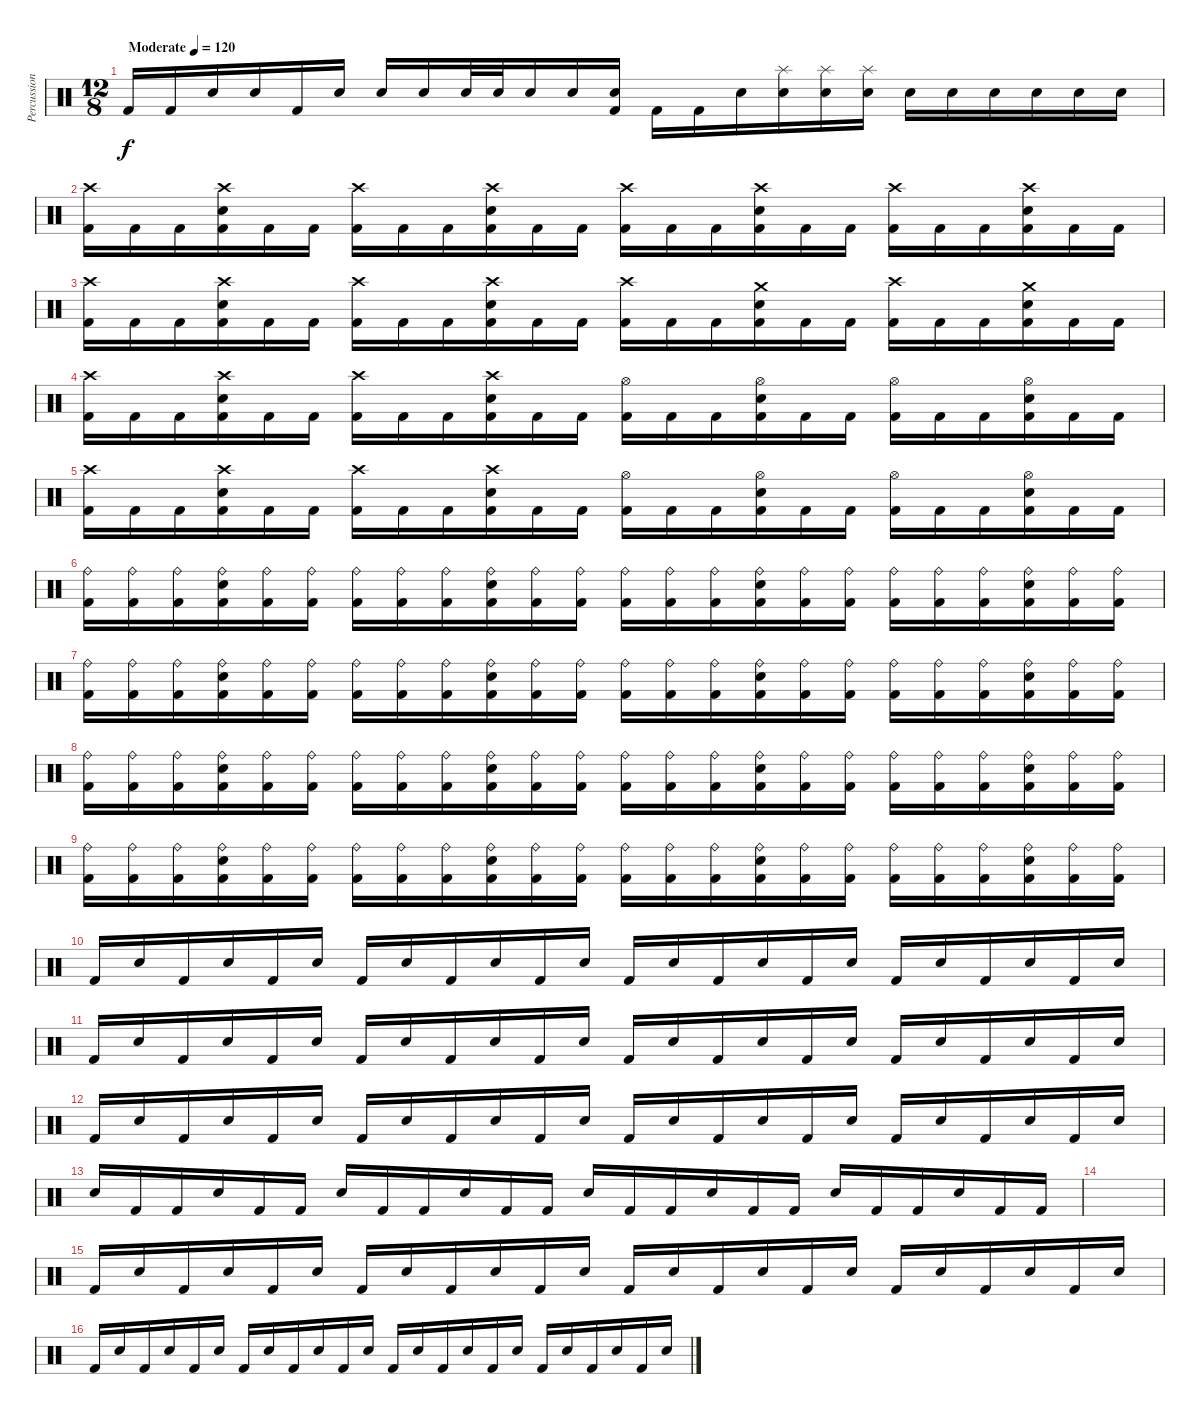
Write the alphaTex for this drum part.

\track ("Percussion" "Percussion") {instrument percussion}
\staff {score}
\articulation defaults
\ts (12 8)
\tempo (120 "Moderate")
\clef neutral
\ks c "Kick (hit) 2".16{dy f} "Kick (hit) 2".16 "Electric Snare (hit)".16 "Electric Snare (hit)".16 "Kick (hit) 2".16 "Electric Snare (hit)".16 "Electric Snare (hit)".16 "Electric Snare (hit)".16 "Electric Snare (hit)".32 "Electric Snare (hit)".32 "Electric Snare (hit)".16 "Electric Snare (hit)".16
("Electric Snare (hit)" "Kick (hit) 2").16 "Kick (hit) 2".16 "Kick (hit) 2".16 "Electric Snare (hit)".16 ("Splash (hit)" "Electric Snare (hit)").16 ("Splash (hit)" "Electric Snare (hit)").16 ("Splash (hit)" "Electric Snare (hit)").16 "Electric Snare (hit)".16 "Electric Snare (hit)".16 "Electric Snare (hit)".16 "Electric Snare (hit)".16 "Electric Snare (hit)".16 "Electric Snare (hit)".16 |
("Crash high (hit)" "Kick (hit) 2").16 "Kick (hit) 2".16 "Kick (hit) 2".16 ("Crash high (hit)" "Electric Snare (hit)" "Kick (hit) 2").16 "Kick (hit) 2".16 "Kick (hit) 2".16 ("Crash high (hit)" "Kick (hit) 2").16 "Kick (hit) 2".16 "Kick (hit) 2".16 ("Crash high (hit)" "Electric Snare (hit)" "Kick (hit) 2").16 "Kick (hit) 2".16 "Kick (hit) 2".16 ("Crash high (hit)" "Kick (hit) 2").16 "Kick (hit) 2".16 "Kick (hit) 2".16 ("Crash high (hit)" "Electric Snare (hit)" "Kick (hit) 2").16 "Kick (hit) 2".16 "Kick (hit) 2".16 ("Crash high (hit)" "Kick (hit) 2").16 "Kick (hit) 2".16 "Kick (hit) 2".16 ("Crash high (hit)" "Electric Snare (hit)" "Kick (hit) 2").16 "Kick (hit) 2".16 "Kick (hit) 2".16 |
("Crash high (hit)" "Kick (hit) 2").16 "Kick (hit) 2".16 "Kick (hit) 2".16 ("Crash high (hit)" "Electric Snare (hit)" "Kick (hit) 2").16 "Kick (hit) 2".16 "Kick (hit) 2".16 ("Crash high (hit)" "Kick (hit) 2").16 "Kick (hit) 2".16 "Kick (hit) 2".16 ("Crash high (hit)" "Electric Snare (hit)" "Kick (hit) 2").16 "Kick (hit) 2".16 "Kick (hit) 2".16 ("Crash high (hit)" "Kick (hit) 2").16 "Kick (hit) 2".16 "Kick (hit) 2".16 ("Crash medium (hit)" "Electric Snare (hit)" "Kick (hit) 2").16 "Kick (hit) 2".16 "Kick (hit) 2".16 ("Crash high (hit)" "Kick (hit) 2").16 "Kick (hit) 2".16 "Kick (hit) 2".16 ("Crash medium (hit)" "Electric Snare (hit)" "Kick (hit) 2").16 "Kick (hit) 2".16 "Kick (hit) 2".16 |
("Crash high (hit)" "Kick (hit) 2").16 "Kick (hit) 2".16 "Kick (hit) 2".16 ("Crash high (hit)" "Electric Snare (hit)" "Kick (hit) 2").16 "Kick (hit) 2".16 "Kick (hit) 2".16 ("Crash high (hit)" "Kick (hit) 2").16 "Kick (hit) 2".16 "Kick (hit) 2".16 ("Crash high (hit)" "Electric Snare (hit)" "Kick (hit) 2").16 "Kick (hit) 2".16 "Kick (hit) 2".16 ("Hi-Hat (open)" "Kick (hit) 2").16 "Kick (hit) 2".16 "Kick (hit) 2".16 ("Hi-Hat (open)" "Electric Snare (hit)" "Kick (hit) 2").16 "Kick (hit) 2".16 "Kick (hit) 2".16 ("Hi-Hat (open)" "Kick (hit) 2").16 "Kick (hit) 2".16 "Kick (hit) 2".16 ("Hi-Hat (open)" "Electric Snare (hit)" "Kick (hit) 2").16 "Kick (hit) 2".16 "Kick (hit) 2".16 |
("Crash high (hit)" "Kick (hit) 2").16 "Kick (hit) 2".16 "Kick (hit) 2".16 ("Crash high (hit)" "Electric Snare (hit)" "Kick (hit) 2").16 "Kick (hit) 2".16 "Kick (hit) 2".16 ("Crash high (hit)" "Kick (hit) 2").16 "Kick (hit) 2".16 "Kick (hit) 2".16 ("Crash high (hit)" "Electric Snare (hit)" "Kick (hit) 2").16 "Kick (hit) 2".16 "Kick (hit) 2".16 ("Hi-Hat (open)" "Kick (hit) 2").16 "Kick (hit) 2".16 "Kick (hit) 2".16 ("Hi-Hat (open)" "Electric Snare (hit)" "Kick (hit) 2").16 "Kick (hit) 2".16 "Kick (hit) 2".16 ("Hi-Hat (open)" "Kick (hit) 2").16 "Kick (hit) 2".16 "Kick (hit) 2".16 ("Hi-Hat (open)" "Electric Snare (hit)" "Kick (hit) 2").16 "Kick (hit) 2".16 "Kick (hit) 2".16 |
("Ride (bell)" "Kick (hit) 2").16 ("Ride (bell)" "Kick (hit) 2").16 ("Ride (bell)" "Kick (hit) 2").16 ("Ride (bell)" "Electric Snare (hit)" "Kick (hit) 2").16 ("Ride (bell)" "Kick (hit) 2").16 ("Ride (bell)" "Kick (hit) 2").16 ("Ride (bell)" "Kick (hit) 2").16 ("Ride (bell)" "Kick (hit) 2").16 ("Ride (bell)" "Kick (hit) 2").16 ("Ride (bell)" "Electric Snare (hit)" "Kick (hit) 2").16 ("Ride (bell)" "Kick (hit) 2").16 ("Ride (bell)" "Kick (hit) 2").16 ("Ride (bell)" "Kick (hit) 2").16 ("Ride (bell)" "Kick (hit) 2").16 ("Ride (bell)" "Kick (hit) 2").16 ("Ride (bell)" "Electric Snare (hit)" "Kick (hit) 2").16 ("Ride (bell)" "Kick (hit) 2").16 ("Ride (bell)" "Kick (hit) 2").16 ("Ride (bell)" "Kick (hit) 2").16 ("Ride (bell)" "Kick (hit) 2").16 ("Ride (bell)" "Kick (hit) 2").16 ("Ride (bell)" "Electric Snare (hit)" "Kick (hit) 2").16 ("Ride (bell)" "Kick (hit) 2").16 ("Ride (bell)" "Kick (hit) 2").16 |
("Ride (bell)" "Kick (hit) 2").16 ("Ride (bell)" "Kick (hit) 2").16 ("Ride (bell)" "Kick (hit) 2").16 ("Ride (bell)" "Electric Snare (hit)" "Kick (hit) 2").16 ("Ride (bell)" "Kick (hit) 2").16 ("Ride (bell)" "Kick (hit) 2").16 ("Ride (bell)" "Kick (hit) 2").16 ("Ride (bell)" "Kick (hit) 2").16 ("Ride (bell)" "Kick (hit) 2").16 ("Ride (bell)" "Electric Snare (hit)" "Kick (hit) 2").16 ("Ride (bell)" "Kick (hit) 2").16 ("Ride (bell)" "Kick (hit) 2").16 ("Ride (bell)" "Kick (hit) 2").16 ("Ride (bell)" "Kick (hit) 2").16 ("Ride (bell)" "Kick (hit) 2").16 ("Ride (bell)" "Electric Snare (hit)" "Kick (hit) 2").16 ("Ride (bell)" "Kick (hit) 2").16 ("Ride (bell)" "Kick (hit) 2").16 ("Ride (bell)" "Kick (hit) 2").16 ("Ride (bell)" "Kick (hit) 2").16 ("Ride (bell)" "Kick (hit) 2").16 ("Ride (bell)" "Electric Snare (hit)" "Kick (hit) 2").16 ("Ride (bell)" "Kick (hit) 2").16 ("Ride (bell)" "Kick (hit) 2").16 |
("Ride (bell)" "Kick (hit) 2").16 ("Ride (bell)" "Kick (hit) 2").16 ("Ride (bell)" "Kick (hit) 2").16 ("Ride (bell)" "Electric Snare (hit)" "Kick (hit) 2").16 ("Ride (bell)" "Kick (hit) 2").16 ("Ride (bell)" "Kick (hit) 2").16 ("Ride (bell)" "Kick (hit) 2").16 ("Ride (bell)" "Kick (hit) 2").16 ("Ride (bell)" "Kick (hit) 2").16 ("Ride (bell)" "Electric Snare (hit)" "Kick (hit) 2").16 ("Ride (bell)" "Kick (hit) 2").16 ("Ride (bell)" "Kick (hit) 2").16 ("Ride (bell)" "Kick (hit) 2").16 ("Ride (bell)" "Kick (hit) 2").16 ("Ride (bell)" "Kick (hit) 2").16 ("Ride (bell)" "Electric Snare (hit)" "Kick (hit) 2").16 ("Ride (bell)" "Kick (hit) 2").16 ("Ride (bell)" "Kick (hit) 2").16 ("Ride (bell)" "Kick (hit) 2").16 ("Ride (bell)" "Kick (hit) 2").16 ("Ride (bell)" "Kick (hit) 2").16 ("Ride (bell)" "Electric Snare (hit)" "Kick (hit) 2").16 ("Ride (bell)" "Kick (hit) 2").16 ("Ride (bell)" "Kick (hit) 2").16 |
("Ride (bell)" "Kick (hit) 2").16 ("Ride (bell)" "Kick (hit) 2").16 ("Ride (bell)" "Kick (hit) 2").16 ("Ride (bell)" "Electric Snare (hit)" "Kick (hit) 2").16 ("Ride (bell)" "Kick (hit) 2").16 ("Ride (bell)" "Kick (hit) 2").16 ("Ride (bell)" "Kick (hit) 2").16 ("Ride (bell)" "Kick (hit) 2").16 ("Ride (bell)" "Kick (hit) 2").16 ("Ride (bell)" "Electric Snare (hit)" "Kick (hit) 2").16 ("Ride (bell)" "Kick (hit) 2").16 ("Ride (bell)" "Kick (hit) 2").16 ("Ride (bell)" "Kick (hit) 2").16 ("Ride (bell)" "Kick (hit) 2").16 ("Ride (bell)" "Kick (hit) 2").16 ("Ride (bell)" "Electric Snare (hit)" "Kick (hit) 2").16 ("Ride (bell)" "Kick (hit) 2").16 ("Ride (bell)" "Kick (hit) 2").16 ("Ride (bell)" "Kick (hit) 2").16 ("Ride (bell)" "Kick (hit) 2").16 ("Ride (bell)" "Kick (hit) 2").16 ("Ride (bell)" "Electric Snare (hit)" "Kick (hit) 2").16 ("Ride (bell)" "Kick (hit) 2").16 ("Ride (bell)" "Kick (hit) 2").16 |
"Kick (hit) 2".16 "Electric Snare (hit)".16 "Kick (hit) 2".16 "Electric Snare (hit)".16 "Kick (hit) 2".16 "Electric Snare (hit)".16 "Kick (hit) 2".16 "Electric Snare (hit)".16 "Kick (hit) 2".16 "Electric Snare (hit)".16 "Kick (hit) 2".16 "Electric Snare (hit)".16 "Kick (hit) 2".16 "Electric Snare (hit)".16 "Kick (hit) 2".16 "Electric Snare (hit)".16 "Kick (hit) 2".16 "Electric Snare (hit)".16 "Kick (hit) 2".16 "Electric Snare (hit)".16 "Kick (hit) 2".16 "Electric Snare (hit)".16 "Kick (hit) 2".16 "Electric Snare (hit)".16 |
"Kick (hit) 2".16 "Electric Snare (hit)".16 "Kick (hit) 2".16 "Electric Snare (hit)".16 "Kick (hit) 2".16 "Electric Snare (hit)".16 "Kick (hit) 2".16 "Electric Snare (hit)".16 "Kick (hit) 2".16 "Electric Snare (hit)".16 "Kick (hit) 2".16 "Electric Snare (hit)".16 "Kick (hit) 2".16 "Electric Snare (hit)".16 "Kick (hit) 2".16 "Electric Snare (hit)".16 "Kick (hit) 2".16 "Electric Snare (hit)".16 "Kick (hit) 2".16 "Electric Snare (hit)".16 "Kick (hit) 2".16 "Electric Snare (hit)".16 "Kick (hit) 2".16 "Electric Snare (hit)".16 |
"Kick (hit) 2".16 "Electric Snare (hit)".16 "Kick (hit) 2".16 "Electric Snare (hit)".16 "Kick (hit) 2".16 "Electric Snare (hit)".16 "Kick (hit) 2".16 "Electric Snare (hit)".16 "Kick (hit) 2".16 "Electric Snare (hit)".16 "Kick (hit) 2".16 "Electric Snare (hit)".16 "Kick (hit) 2".16 "Electric Snare (hit)".16 "Kick (hit) 2".16 "Electric Snare (hit)".16 "Kick (hit) 2".16 "Electric Snare (hit)".16 "Kick (hit) 2".16 "Electric Snare (hit)".16 "Kick (hit) 2".16 "Electric Snare (hit)".16 "Kick (hit) 2".16 "Electric Snare (hit)".16 |
"Electric Snare (hit)".16 "Kick (hit) 2".16 "Kick (hit) 2".16 "Electric Snare (hit)".16 "Kick (hit) 2".16 "Kick (hit) 2".16 "Electric Snare (hit)".16 "Kick (hit) 2".16 "Kick (hit) 2".16 "Electric Snare (hit)".16 "Kick (hit) 2".16 "Kick (hit) 2".16 "Electric Snare (hit)".16 "Kick (hit) 2".16 "Kick (hit) 2".16 "Electric Snare (hit)".16 "Kick (hit) 2".16 "Kick (hit) 2".16 "Electric Snare (hit)".16 "Kick (hit) 2".16 "Kick (hit) 2".16 "Electric Snare (hit)".16 "Kick (hit) 2".16 "Kick (hit) 2".16 |
|
"Kick (hit) 2".16 "Electric Snare (hit)".16 "Kick (hit) 2".16 "Electric Snare (hit)".16 "Kick (hit) 2".16 "Electric Snare (hit)".16 "Kick (hit) 2".16 "Electric Snare (hit)".16 "Kick (hit) 2".16 "Electric Snare (hit)".16 "Kick (hit) 2".16 "Electric Snare (hit)".16 "Kick (hit) 2".16 "Electric Snare (hit)".16 "Kick (hit) 2".16 "Electric Snare (hit)".16 "Kick (hit) 2".16 "Electric Snare (hit)".16 "Kick (hit) 2".16 "Electric Snare (hit)".16 "Kick (hit) 2".16 "Electric Snare (hit)".16 "Kick (hit) 2".16 "Electric Snare (hit)".16 |
"Kick (hit) 2".16 "Electric Snare (hit)".16 "Kick (hit) 2".16 "Electric Snare (hit)".16 "Kick (hit) 2".16 "Electric Snare (hit)".16 "Kick (hit) 2".16 "Electric Snare (hit)".16 "Kick (hit) 2".16 "Electric Snare (hit)".16 "Kick (hit) 2".16 "Electric Snare (hit)".16 "Kick (hit) 2".16 "Electric Snare (hit)".16 "Kick (hit) 2".16 "Electric Snare (hit)".16 "Kick (hit) 2".16 "Electric Snare (hit)".16 "Kick (hit) 2".16 "Electric Snare (hit)".16 "Kick (hit) 2".16 "Electric Snare (hit)".16 "Kick (hit) 2".16 "Electric Snare (hit)".16
